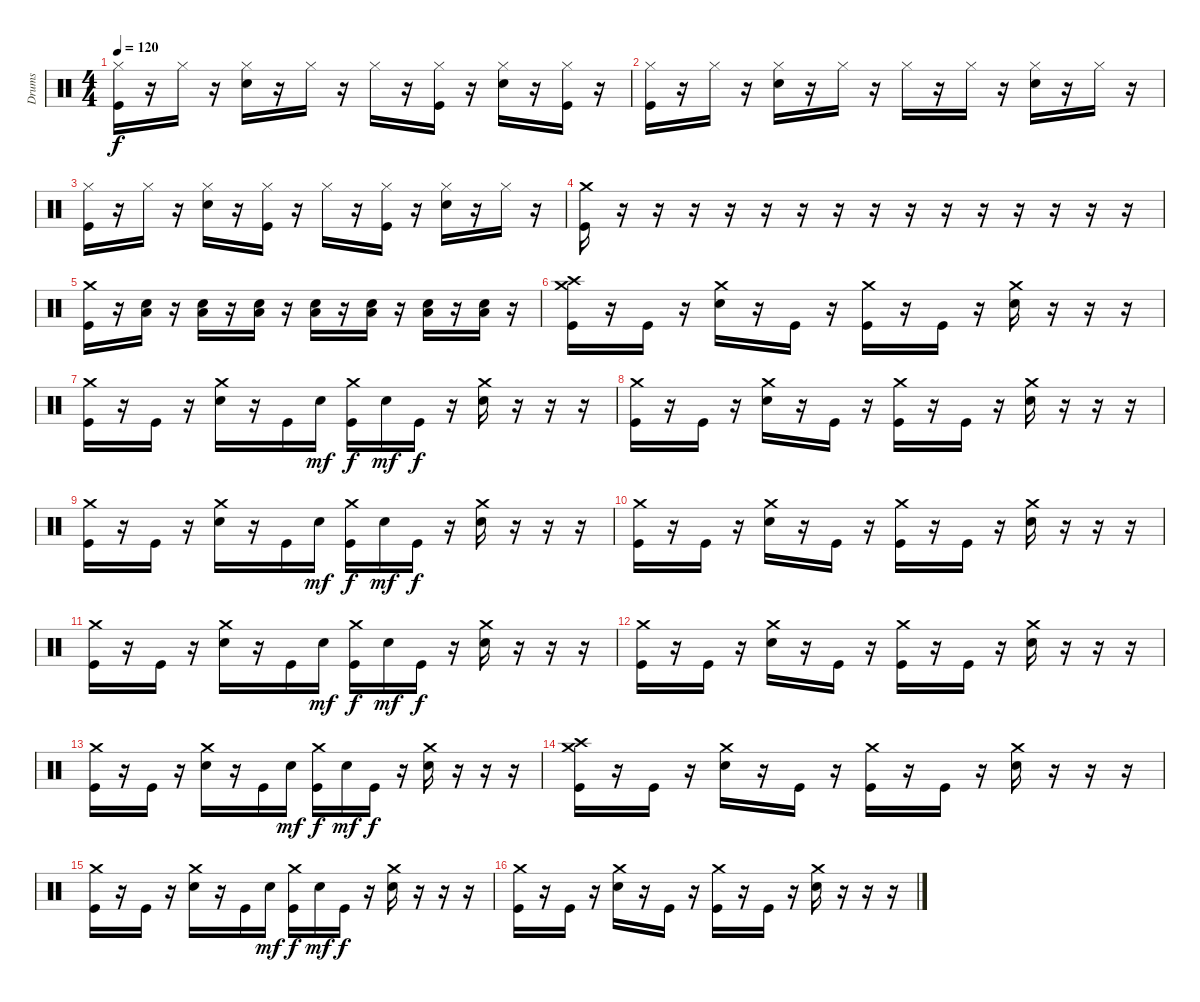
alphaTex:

\track ("Drums" "Drums") {instrument percussion}
\staff {score}
\articulation defaults
\ts (4 4)
\tempo 120
\clef neutral
\ks c
("Kick (hit)" "Hi-Hat (closed)").16{dy f} r.16 "Hi-Hat (closed)".16 r.16 ("Electric Snare (hit)" "Hi-Hat (closed)").16 r.16 "Hi-Hat (closed)".16 r.16 "Hi-Hat (closed)".16 r.16 ("Kick (hit)" "Hi-Hat (closed)").16 r.16 ("Electric Snare (hit)" "Hi-Hat (closed)").16 r.16 ("Kick (hit)" "Hi-Hat (closed)").16 r.16 |
("Kick (hit)" "Hi-Hat (closed)").16 r.16 "Hi-Hat (closed)".16 r.16 ("Electric Snare (hit)" "Hi-Hat (closed)").16 r.16 "Hi-Hat (closed)".16 r.16 "Hi-Hat (closed)".16 r.16 "Hi-Hat (closed)".16 r.16 ("Electric Snare (hit)" "Hi-Hat (closed)").16 r.16 "Hi-Hat (closed)".16 r.16 |
("Kick (hit)" "Hi-Hat (closed)").16 r.16 "Hi-Hat (closed)".16 r.16 ("Electric Snare (hit)" "Hi-Hat (closed)").16 r.16 ("Kick (hit)" "Hi-Hat (closed)").16 r.16 "Hi-Hat (closed)".16 r.16 ("Kick (hit)" "Hi-Hat (closed)").16 r.16 ("Electric Snare (hit)" "Hi-Hat (closed)").16 r.16 "Hi-Hat (closed)".16 r.16 |
("Kick (hit)" "Crash medium (hit)").16 r.16 r.16 r.16 r.16 r.16 r.16 r.16 r.16 r.16 r.16 r.16 r.16 r.16 r.16 r.16 |
("Kick (hit)" "Crash medium (hit)").16 r.16 ("Electric Snare (hit)" "Low Floor Tom (hit)").16 r.16 ("Electric Snare (hit)" "Low Floor Tom (hit)").16 r.16 ("Electric Snare (hit)" "Low Floor Tom (hit)").16 r.16 ("Electric Snare (hit)" "Low Floor Tom (hit)").16 r.16 ("Electric Snare (hit)" "Low Floor Tom (hit)").16 r.16 ("Electric Snare (hit)" "Low Floor Tom (hit)").16 r.16 ("Electric Snare (hit)" "Low Floor Tom (hit)").16 r.16 |
("Kick (hit)" "Crash high (hit)" "Crash medium (hit)").16 r.16 "Kick (hit)".16 r.16 ("Electric Snare (hit)" "Crash medium (hit)").16 r.16 "Kick (hit)".16 r.16 ("Kick (hit)" "Crash medium (hit)").16 r.16 "Kick (hit)".16 r.16 ("Electric Snare (hit)" "Crash medium (hit)").16 r.16 r.16 r.16 |
("Kick (hit)" "Crash medium (hit)").16 r.16 "Kick (hit)".16 r.16 ("Electric Snare (hit)" "Crash medium (hit)").16 r.16 "Kick (hit)".16 "Electric Snare (hit)".16{dy mf} ("Kick (hit)" "Crash medium (hit)").16{dy f} "Electric Snare (hit)".16{dy mf} "Kick (hit)".16{dy f} r.16 ("Electric Snare (hit)" "Crash medium (hit)").16 r.16 r.16 r.16 |
("Kick (hit)" "Crash medium (hit)").16 r.16 "Kick (hit)".16 r.16 ("Electric Snare (hit)" "Crash medium (hit)").16 r.16 "Kick (hit)".16 r.16 ("Kick (hit)" "Crash medium (hit)").16 r.16 "Kick (hit)".16 r.16 ("Electric Snare (hit)" "Crash medium (hit)").16 r.16 r.16 r.16 |
("Kick (hit)" "Crash medium (hit)").16 r.16 "Kick (hit)".16 r.16 ("Electric Snare (hit)" "Crash medium (hit)").16 r.16 "Kick (hit)".16 "Electric Snare (hit)".16{dy mf} ("Kick (hit)" "Crash medium (hit)").16{dy f} "Electric Snare (hit)".16{dy mf} "Kick (hit)".16{dy f} r.16 ("Electric Snare (hit)" "Crash medium (hit)").16 r.16 r.16 r.16 |
("Kick (hit)" "Crash medium (hit)").16 r.16 "Kick (hit)".16 r.16 ("Electric Snare (hit)" "Crash medium (hit)").16 r.16 "Kick (hit)".16 r.16 ("Kick (hit)" "Crash medium (hit)").16 r.16 "Kick (hit)".16 r.16 ("Electric Snare (hit)" "Crash medium (hit)").16 r.16 r.16 r.16 |
("Kick (hit)" "Crash medium (hit)").16 r.16 "Kick (hit)".16 r.16 ("Electric Snare (hit)" "Crash medium (hit)").16 r.16 "Kick (hit)".16 "Electric Snare (hit)".16{dy mf} ("Kick (hit)" "Crash medium (hit)").16{dy f} "Electric Snare (hit)".16{dy mf} "Kick (hit)".16{dy f} r.16 ("Electric Snare (hit)" "Crash medium (hit)").16 r.16 r.16 r.16 |
("Kick (hit)" "Crash medium (hit)").16 r.16 "Kick (hit)".16 r.16 ("Electric Snare (hit)" "Crash medium (hit)").16 r.16 "Kick (hit)".16 r.16 ("Kick (hit)" "Crash medium (hit)").16 r.16 "Kick (hit)".16 r.16 ("Electric Snare (hit)" "Crash medium (hit)").16 r.16 r.16 r.16 |
("Kick (hit)" "Crash medium (hit)").16 r.16 "Kick (hit)".16 r.16 ("Electric Snare (hit)" "Crash medium (hit)").16 r.16 "Kick (hit)".16 "Electric Snare (hit)".16{dy mf} ("Kick (hit)" "Crash medium (hit)").16{dy f} "Electric Snare (hit)".16{dy mf} "Kick (hit)".16{dy f} r.16 ("Electric Snare (hit)" "Crash medium (hit)").16 r.16 r.16 r.16 |
("Kick (hit)" "Crash high (hit)" "Crash medium (hit)").16 r.16 "Kick (hit)".16 r.16 ("Electric Snare (hit)" "Crash medium (hit)").16 r.16 "Kick (hit)".16 r.16 ("Kick (hit)" "Crash medium (hit)").16 r.16 "Kick (hit)".16 r.16 ("Electric Snare (hit)" "Crash medium (hit)").16 r.16 r.16 r.16 |
("Kick (hit)" "Crash medium (hit)").16 r.16 "Kick (hit)".16 r.16 ("Electric Snare (hit)" "Crash medium (hit)").16 r.16 "Kick (hit)".16 "Electric Snare (hit)".16{dy mf} ("Kick (hit)" "Crash medium (hit)").16{dy f} "Electric Snare (hit)".16{dy mf} "Kick (hit)".16{dy f} r.16 ("Electric Snare (hit)" "Crash medium (hit)").16 r.16 r.16 r.16 |
("Kick (hit)" "Crash medium (hit)").16 r.16 "Kick (hit)".16 r.16 ("Electric Snare (hit)" "Crash medium (hit)").16 r.16 "Kick (hit)".16 r.16 ("Kick (hit)" "Crash medium (hit)").16 r.16 "Kick (hit)".16 r.16 ("Electric Snare (hit)" "Crash medium (hit)").16 r.16 r.16 r.16
